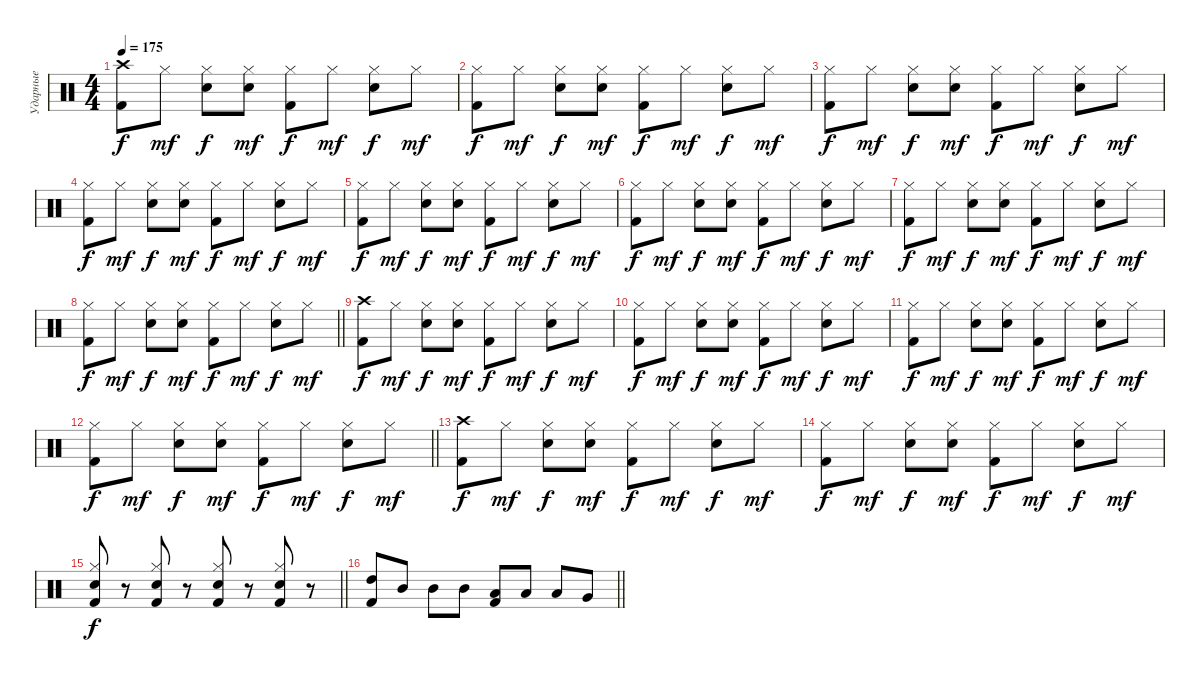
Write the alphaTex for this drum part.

\track ("Ударные" "Ударные") {instrument percussion}
\staff {score}
\articulation defaults
\ts (4 4)
\section ("" "")
\tempo 175
\clef neutral
\ks c
("Crash high (hit)" "Kick (hit) 2").8{dy f} "Hi-Hat (closed)".8{dy mf} ("Hi-Hat (closed)" "Snare (hit) 2").8{dy f} ("Hi-Hat (closed)" "Snare (hit) 2").8{dy mf} ("Hi-Hat (closed)" "Kick (hit) 2").8{dy f} "Hi-Hat (closed)".8{dy mf} ("Hi-Hat (closed)" "Snare (hit) 2").8{dy f} "Hi-Hat (closed)".8{dy mf} |
("Hi-Hat (closed)" "Kick (hit) 2").8{dy f} "Hi-Hat (closed)".8{dy mf} ("Hi-Hat (closed)" "Snare (hit) 2").8{dy f} ("Hi-Hat (closed)" "Snare (hit) 2").8{dy mf} ("Hi-Hat (closed)" "Kick (hit) 2").8{dy f} "Hi-Hat (closed)".8{dy mf} ("Hi-Hat (closed)" "Snare (hit) 2").8{dy f} "Hi-Hat (closed)".8{dy mf} |
("Hi-Hat (closed)" "Kick (hit) 2").8{dy f} "Hi-Hat (closed)".8{dy mf} ("Hi-Hat (closed)" "Snare (hit) 2").8{dy f} ("Hi-Hat (closed)" "Snare (hit) 2").8{dy mf} ("Hi-Hat (closed)" "Kick (hit) 2").8{dy f} "Hi-Hat (closed)".8{dy mf} ("Hi-Hat (closed)" "Snare (hit) 2").8{dy f} "Hi-Hat (closed)".8{dy mf} |
("Hi-Hat (closed)" "Kick (hit) 2").8{dy f} "Hi-Hat (closed)".8{dy mf} ("Hi-Hat (closed)" "Snare (hit) 2").8{dy f} ("Hi-Hat (closed)" "Snare (hit) 2").8{dy mf} ("Hi-Hat (closed)" "Kick (hit) 2").8{dy f} "Hi-Hat (closed)".8{dy mf} ("Hi-Hat (closed)" "Snare (hit) 2").8{dy f} "Hi-Hat (closed)".8{dy mf} |
("Hi-Hat (closed)" "Kick (hit) 2").8{dy f} "Hi-Hat (closed)".8{dy mf} ("Hi-Hat (closed)" "Snare (hit) 2").8{dy f} ("Hi-Hat (closed)" "Snare (hit) 2").8{dy mf} ("Hi-Hat (closed)" "Kick (hit) 2").8{dy f} "Hi-Hat (closed)".8{dy mf} ("Hi-Hat (closed)" "Snare (hit) 2").8{dy f} "Hi-Hat (closed)".8{dy mf} |
("Hi-Hat (closed)" "Kick (hit) 2").8{dy f} "Hi-Hat (closed)".8{dy mf} ("Hi-Hat (closed)" "Snare (hit) 2").8{dy f} ("Hi-Hat (closed)" "Snare (hit) 2").8{dy mf} ("Hi-Hat (closed)" "Kick (hit) 2").8{dy f} "Hi-Hat (closed)".8{dy mf} ("Hi-Hat (closed)" "Snare (hit) 2").8{dy f} "Hi-Hat (closed)".8{dy mf} |
("Hi-Hat (closed)" "Kick (hit) 2").8{dy f} "Hi-Hat (closed)".8{dy mf} ("Hi-Hat (closed)" "Snare (hit) 2").8{dy f} ("Hi-Hat (closed)" "Snare (hit) 2").8{dy mf} ("Hi-Hat (closed)" "Kick (hit) 2").8{dy f} "Hi-Hat (closed)".8{dy mf} ("Hi-Hat (closed)" "Snare (hit) 2").8{dy f} "Hi-Hat (closed)".8{dy mf} |
\barLineRight lightlight
("Hi-Hat (closed)" "Kick (hit) 2").8{dy f} "Hi-Hat (closed)".8{dy mf} ("Hi-Hat (closed)" "Snare (hit) 2").8{dy f} ("Hi-Hat (closed)" "Snare (hit) 2").8{dy mf} ("Hi-Hat (closed)" "Kick (hit) 2").8{dy f} "Hi-Hat (closed)".8{dy mf} ("Hi-Hat (closed)" "Snare (hit) 2").8{dy f} "Hi-Hat (closed)".8{dy mf} |
\section ("" "")
("Crash high (hit)" "Kick (hit) 2").8{dy f} "Hi-Hat (closed)".8{dy mf} ("Hi-Hat (closed)" "Snare (hit) 2").8{dy f} ("Hi-Hat (closed)" "Snare (hit) 2").8{dy mf} ("Hi-Hat (closed)" "Kick (hit) 2").8{dy f} "Hi-Hat (closed)".8{dy mf} ("Hi-Hat (closed)" "Snare (hit) 2").8{dy f} "Hi-Hat (closed)".8{dy mf} |
("Hi-Hat (closed)" "Kick (hit) 2").8{dy f} "Hi-Hat (closed)".8{dy mf} ("Hi-Hat (closed)" "Snare (hit) 2").8{dy f} ("Hi-Hat (closed)" "Snare (hit) 2").8{dy mf} ("Hi-Hat (closed)" "Kick (hit) 2").8{dy f} "Hi-Hat (closed)".8{dy mf} ("Hi-Hat (closed)" "Snare (hit) 2").8{dy f} "Hi-Hat (closed)".8{dy mf} |
("Hi-Hat (closed)" "Kick (hit) 2").8{dy f} "Hi-Hat (closed)".8{dy mf} ("Hi-Hat (closed)" "Snare (hit) 2").8{dy f} ("Hi-Hat (closed)" "Snare (hit) 2").8{dy mf} ("Hi-Hat (closed)" "Kick (hit) 2").8{dy f} "Hi-Hat (closed)".8{dy mf} ("Hi-Hat (closed)" "Snare (hit) 2").8{dy f} "Hi-Hat (closed)".8{dy mf} |
\barLineRight lightlight
("Hi-Hat (closed)" "Kick (hit) 2").8{dy f} "Hi-Hat (closed)".8{dy mf} ("Hi-Hat (closed)" "Snare (hit) 2").8{dy f} ("Hi-Hat (closed)" "Snare (hit) 2").8{dy mf} ("Hi-Hat (closed)" "Kick (hit) 2").8{dy f} "Hi-Hat (closed)".8{dy mf} ("Hi-Hat (closed)" "Snare (hit) 2").8{dy f} "Hi-Hat (closed)".8{dy mf} |
\section ("" "")
("Crash high (hit)" "Kick (hit) 2").8{dy f} "Hi-Hat (closed)".8{dy mf} ("Hi-Hat (closed)" "Snare (hit) 2").8{dy f} ("Hi-Hat (closed)" "Snare (hit) 2").8{dy mf} ("Hi-Hat (closed)" "Kick (hit) 2").8{dy f} "Hi-Hat (closed)".8{dy mf} ("Hi-Hat (closed)" "Snare (hit) 2").8{dy f} "Hi-Hat (closed)".8{dy mf} |
("Hi-Hat (closed)" "Kick (hit) 2").8{dy f} "Hi-Hat (closed)".8{dy mf} ("Hi-Hat (closed)" "Snare (hit) 2").8{dy f} ("Hi-Hat (closed)" "Snare (hit) 2").8{dy mf} ("Hi-Hat (closed)" "Kick (hit) 2").8{dy f} "Hi-Hat (closed)".8{dy mf} ("Hi-Hat (closed)" "Snare (hit) 2").8{dy f} "Hi-Hat (closed)".8{dy mf} |
\barLineRight lightlight
("Hi-Hat (closed)" "Snare (hit) 2" "Kick (hit) 2").8{dy f} r.8 ("Hi-Hat (closed)" "Kick (hit) 2" "Snare (hit) 2").8 r.8 ("Hi-Hat (closed)" "Snare (hit) 2" "Kick (hit) 2").8 r.8 ("Hi-Hat (closed)" "Kick (hit) 2" "Snare (hit) 2").8 r.8 |
\section ("" "")
\barLineRight lightlight
("High Tom (hit)" "Kick (hit) 2").8 "Mid Tom (hit)".8 "Mid Tom (hit)".8 "Mid Tom (hit)".8 ("Low Tom (hit)" "Kick (hit) 2").8 "Low Tom (hit)".8 "Low Tom (hit)".8 "Very Low Tom (hit)".8
